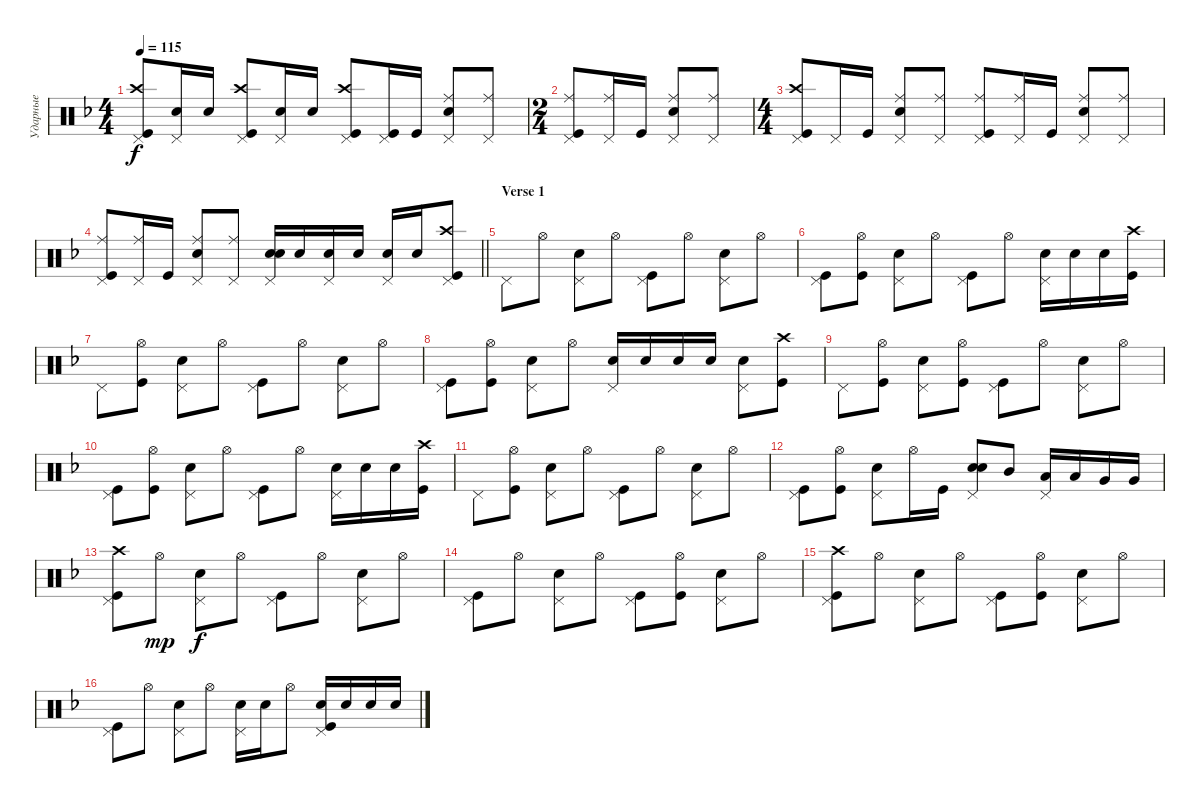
\track ("Ударные" "Ударные") {instrument percussion}
\staff {score}
\articulation defaults
\ts (4 4)
\tempo 115
\clef neutral
\ks dminor
("Kick (hit)" "Crash high (hit)" "Pedal Hi-Hat (hit)").8{dy f} ("Snare (hit) 2" "Pedal Hi-Hat (hit)").16 "Snare (hit) 2".16 ("Kick (hit)" "Crash high (hit)" "Pedal Hi-Hat (hit)").8 ("Snare (hit) 2" "Pedal Hi-Hat (hit)").16 "Snare (hit) 2".16 ("Kick (hit)" "Crash high (hit)" "Pedal Hi-Hat (hit)").8 ("Pedal Hi-Hat (hit)" "Kick (hit)").16 "Kick (hit)".16 ("Snare (hit) 2" "Pedal Hi-Hat (hit)" "Ride (middle)").8 ("Pedal Hi-Hat (hit)" "Ride (middle)").8 |
\ts (2 4)
("Kick (hit)" "Pedal Hi-Hat (hit)" "Ride (middle)").8 ("Ride (middle)" "Pedal Hi-Hat (hit)").16 "Kick (hit)".16 ("Ride (middle)" "Snare (hit) 2" "Pedal Hi-Hat (hit)").8 ("Ride (middle)" "Pedal Hi-Hat (hit)").8 |
\ts (4 4)
("Pedal Hi-Hat (hit)" "Kick (hit)" "Crash high (hit)").8 "Pedal Hi-Hat (hit)".16 "Kick (hit)".16 ("Ride (middle)" "Snare (hit) 2" "Pedal Hi-Hat (hit)").8 ("Ride (middle)" "Pedal Hi-Hat (hit)").8 ("Kick (hit)" "Ride (middle)" "Pedal Hi-Hat (hit)").8 ("Pedal Hi-Hat (hit)" "Ride (middle)").16 "Kick (hit)".16 ("Snare (hit) 2" "Ride (middle)" "Pedal Hi-Hat (hit)").8 ("Ride (middle)" "Pedal Hi-Hat (hit)").8 |
\barLineRight lightlight
("Kick (hit)" "Pedal Hi-Hat (hit)" "Ride (middle)").8 ("Pedal Hi-Hat (hit)" "Ride (middle)").16 "Kick (hit)".16 ("Snare (hit) 2" "Ride (middle)" "Pedal Hi-Hat (hit)").8 ("Ride (middle)" "Pedal Hi-Hat (hit)").8 ("Snare (hit) 2" "Snare (hit) 2" "Pedal Hi-Hat (hit)").16{bd 240} "Snare (hit) 2".16 ("Snare (hit) 2" "Pedal Hi-Hat (hit)").16 "Snare (hit) 2".16 ("Snare (hit) 2" "Pedal Hi-Hat (hit)").16 "Snare (hit) 2".16 ("Kick (hit)" "Crash high (hit)" "Pedal Hi-Hat (hit)").8 |
\section ("" "Verse 1")
"Pedal Hi-Hat (hit)".8 "Hi-Hat (open)".8 ("Snare (hit) 2" "Pedal Hi-Hat (hit)").8 "Hi-Hat (open)".8 ("Kick (hit)" "Pedal Hi-Hat (hit)").8 "Hi-Hat (open)".8 ("Snare (hit) 2" "Pedal Hi-Hat (hit)").8 "Hi-Hat (open)".8 |
("Kick (hit)" "Pedal Hi-Hat (hit)").8 ("Hi-Hat (open)" "Kick (hit)").8 ("Snare (hit) 2" "Pedal Hi-Hat (hit)").8 "Hi-Hat (open)".8 ("Kick (hit)" "Pedal Hi-Hat (hit)").8 "Hi-Hat (open)".8 ("Snare (hit) 2" "Pedal Hi-Hat (hit)").16 "Snare (hit) 2".16 "Snare (hit) 2".16 ("Kick (hit)" "Crash high (hit)").16 |
"Pedal Hi-Hat (hit)".8 ("Hi-Hat (open)" "Kick (hit)").8 ("Snare (hit) 2" "Pedal Hi-Hat (hit)").8 "Hi-Hat (open)".8 ("Kick (hit)" "Pedal Hi-Hat (hit)").8 "Hi-Hat (open)".8 ("Snare (hit) 2" "Pedal Hi-Hat (hit)").8 "Hi-Hat (open)".8 |
("Kick (hit)" "Pedal Hi-Hat (hit)").8 ("Kick (hit)" "Hi-Hat (open)").8 ("Snare (hit) 2" "Pedal Hi-Hat (hit)").8 "Hi-Hat (open)".8 ("Snare (hit) 2" "Pedal Hi-Hat (hit)").16 "Snare (hit) 2".16 "Snare (hit) 2".16 "Snare (hit) 2".16 ("Snare (hit) 2" "Pedal Hi-Hat (hit)").8 ("Kick (hit)" "Crash high (hit)").8 |
"Pedal Hi-Hat (hit)".8 ("Kick (hit)" "Hi-Hat (open)").8 ("Snare (hit) 2" "Pedal Hi-Hat (hit)").8 ("Hi-Hat (open)" "Kick (hit)").8 ("Kick (hit)" "Pedal Hi-Hat (hit)").8 "Hi-Hat (open)".8 ("Snare (hit) 2" "Pedal Hi-Hat (hit)").8 "Hi-Hat (open)".8 |
("Kick (hit)" "Pedal Hi-Hat (hit)").8 ("Hi-Hat (open)" "Kick (hit)").8 ("Snare (hit) 2" "Pedal Hi-Hat (hit)").8 "Hi-Hat (open)".8 ("Kick (hit)" "Pedal Hi-Hat (hit)").8 "Hi-Hat (open)".8 ("Snare (hit) 2" "Pedal Hi-Hat (hit)").16 "Snare (hit) 2".16 "Snare (hit) 2".16 ("Kick (hit)" "Crash high (hit)").16 |
"Pedal Hi-Hat (hit)".8 ("Hi-Hat (open)" "Kick (hit)").8 ("Snare (hit) 2" "Pedal Hi-Hat (hit)").8 "Hi-Hat (open)".8 ("Kick (hit)" "Pedal Hi-Hat (hit)").8 "Hi-Hat (open)".8 ("Snare (hit) 2" "Pedal Hi-Hat (hit)").8 "Hi-Hat (open)".8 |
("Kick (hit)" "Pedal Hi-Hat (hit)").8 ("Kick (hit)" "Hi-Hat (open)").8 ("Snare (hit) 2" "Pedal Hi-Hat (hit)").8 "Hi-Hat (open)".16 "Kick (hit)".16 ("Snare (hit) 2" "Snare (hit) 2" "Pedal Hi-Hat (hit)").8{bd 480} "Mid Tom (hit)".8 ("Low Tom (hit)" "Pedal Hi-Hat (hit)").16 "Low Tom (hit)".16 "Very Low Tom (hit)".16 "Very Low Tom (hit)".16 |
("Kick (hit)" "Crash high (hit)" "Pedal Hi-Hat (hit)").8 "Hi-Hat (open)".8{dy mp} ("Snare (hit) 2" "Pedal Hi-Hat (hit)").8{dy f} "Hi-Hat (open)".8 ("Kick (hit)" "Pedal Hi-Hat (hit)").8 "Hi-Hat (open)".8 ("Snare (hit) 2" "Pedal Hi-Hat (hit)").8 "Hi-Hat (open)".8 |
("Kick (hit)" "Pedal Hi-Hat (hit)").8 "Hi-Hat (open)".8 ("Snare (hit) 2" "Pedal Hi-Hat (hit)").8 "Hi-Hat (open)".8 ("Kick (hit)" "Pedal Hi-Hat (hit)").8 ("Kick (hit)" "Hi-Hat (open)").8 ("Snare (hit) 2" "Pedal Hi-Hat (hit)").8 "Hi-Hat (open)".8 |
("Kick (hit)" "Crash high (hit)" "Pedal Hi-Hat (hit)").8 "Hi-Hat (open)".8 ("Snare (hit) 2" "Pedal Hi-Hat (hit)").8 "Hi-Hat (open)".8 ("Kick (hit)" "Pedal Hi-Hat (hit)").8 ("Hi-Hat (open)" "Kick (hit)").8 ("Snare (hit) 2" "Pedal Hi-Hat (hit)").8 "Hi-Hat (open)".8 |
("Kick (hit)" "Pedal Hi-Hat (hit)").8 "Hi-Hat (open)".8 ("Snare (hit) 2" "Pedal Hi-Hat (hit)").8 "Hi-Hat (open)".8 ("Pedal Hi-Hat (hit)" "Snare (hit) 2").16 "Snare (hit) 2".16 "Hi-Hat (open)".8 ("Snare (hit) 2" "Kick (hit)" "Pedal Hi-Hat (hit)").16 "Snare (hit) 2".16 "Snare (hit) 2".16 "Snare (hit) 2".16
